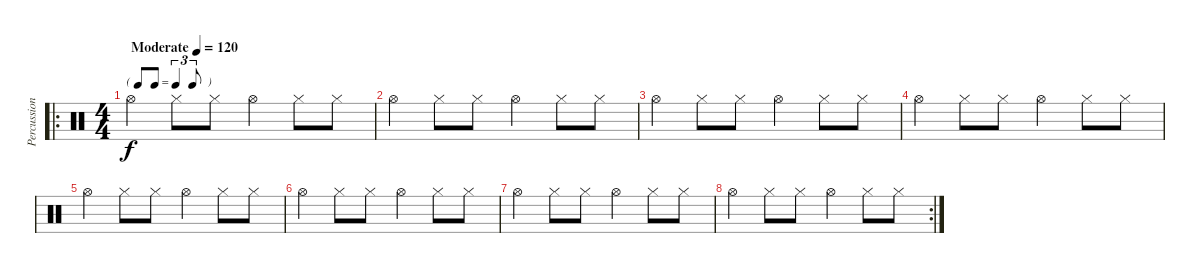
\track ("Percussions" "Percussion") {instrument percussion}
\staff {score}
\articulation defaults
\ro
\ts (4 4)
\tf triplet8th
\tempo (120 "Moderate")
\clef neutral
\ks c "Hi-Hat (open)".4{dy f} "Hi-Hat (closed)".8 "Hi-Hat (closed)".8 "Hi-Hat (open)".4 "Hi-Hat (closed)".8 "Hi-Hat (closed)".8
|
"Hi-Hat (open)".4 "Hi-Hat (closed)".8 "Hi-Hat (closed)".8 "Hi-Hat (open)".4 "Hi-Hat (closed)".8 "Hi-Hat (closed)".8 |
"Hi-Hat (open)".4 "Hi-Hat (closed)".8 "Hi-Hat (closed)".8 "Hi-Hat (open)".4 "Hi-Hat (closed)".8 "Hi-Hat (closed)".8 |
"Hi-Hat (open)".4 "Hi-Hat (closed)".8 "Hi-Hat (closed)".8 "Hi-Hat (open)".4 "Hi-Hat (closed)".8 "Hi-Hat (closed)".8 |
"Hi-Hat (open)".4 "Hi-Hat (closed)".8 "Hi-Hat (closed)".8 "Hi-Hat (open)".4 "Hi-Hat (closed)".8 "Hi-Hat (closed)".8 |
"Hi-Hat (open)".4 "Hi-Hat (closed)".8 "Hi-Hat (closed)".8 "Hi-Hat (open)".4 "Hi-Hat (closed)".8 "Hi-Hat (closed)".8 |
"Hi-Hat (open)".4 "Hi-Hat (closed)".8 "Hi-Hat (closed)".8 "Hi-Hat (open)".4 "Hi-Hat (closed)".8 "Hi-Hat (closed)".8 |
\rc 2 "Hi-Hat (open)".4 "Hi-Hat (closed)".8 "Hi-Hat (closed)".8 "Hi-Hat (open)".4 "Hi-Hat (closed)".8 "Hi-Hat (closed)".8
